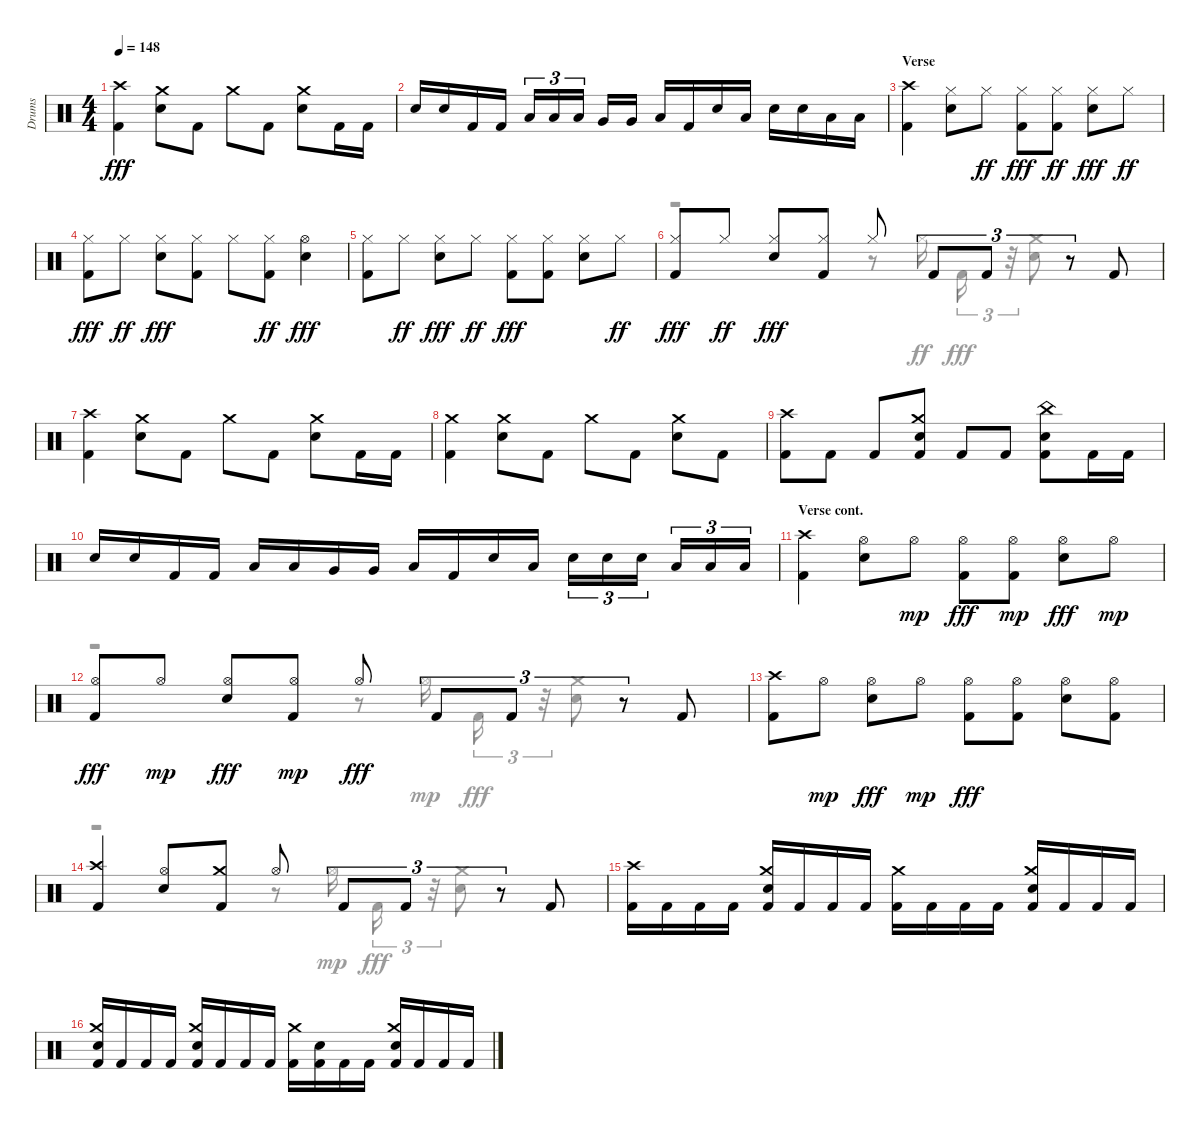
\track ("Drums" "Drums") {instrument percussion}
\staff {score}
\articulation defaults
\voice
\ts (4 4)
\tempo 148
\clef neutral
\ks aminor
("Crash high (hit)" "Kick (hit) 2").4{dy fff} ("Crash medium (hit)" "Snare (hit) 2").8 "Kick (hit) 2".8 "Crash medium (hit)".8 "Kick (hit) 2".8 ("Snare (hit) 2" "Crash medium (hit)").8 "Kick (hit) 2".16 "Kick (hit) 2".16 |
"Snare (hit) 2".16 "Snare (hit) 2".16 "Kick (hit) 2".16 "Kick (hit) 2".16 "Low Tom (hit)".16{tu (3 2)} "Low Tom (hit)".16{tu (3 2)} "Low Tom (hit)".16{tu (3 2)} "Very Low Tom (hit)".16 "Very Low Tom (hit)".16 "Low Floor Tom (hit)".16 "Kick (hit) 2".16 "Snare (hit) 2".16 "Low Floor Tom (hit)".16 "Snare (hit) 2".16 "Snare (hit) 2".16 "Low Floor Tom (hit)".16 "Low Floor Tom (hit)".16 |
\section ("" "Verse")
("Kick (hit) 2" "Crash high (hit)").4 ("Snare (hit) 2" "Hi-Hat (closed)").8 "Hi-Hat (closed)".8{dy ff} ("Hi-Hat (closed)" "Kick (hit) 2").8{dy fff} ("Kick (hit) 2" "Hi-Hat (closed)").8{dy ff} ("Hi-Hat (closed)" "Snare (hit) 2").8{dy fff} "Hi-Hat (closed)".8{dy ff} |
("Kick (hit) 2" "Hi-Hat (closed)").8{dy fff} "Hi-Hat (closed)".8{dy ff} ("Snare (hit) 2" "Hi-Hat (closed)").8{dy fff} ("Kick (hit) 2" "Hi-Hat (closed)").8 "Hi-Hat (closed)".8 ("Hi-Hat (closed)" "Kick (hit) 2").8{dy ff} ("Hi-Hat (open)" "Snare (hit) 2").4{dy fff} |
("Kick (hit) 2" "Hi-Hat (closed)").8 "Hi-Hat (closed)".8{dy ff} ("Snare (hit) 2" "Hi-Hat (closed)").8{dy fff} "Hi-Hat (closed)".8{dy ff} ("Kick (hit) 2" "Hi-Hat (closed)").8{dy fff} ("Kick (hit) 2" "Hi-Hat (closed)").8 ("Hi-Hat (closed)" "Snare (hit) 2").8 "Hi-Hat (closed)".8{dy ff} |
("Kick (hit) 2" "Hi-Hat (closed)").8{dy fff} "Hi-Hat (closed)".8{dy ff} ("Snare (hit) 2" "Hi-Hat (closed)").8{dy fff} ("Kick (hit) 2" "Hi-Hat (closed)").8 "Hi-Hat (closed)".8 "Kick (hit) 2".8{tu (3 2)} "Kick (hit) 2".8{tu (3 2)} r.8{tu (3 2)} "Kick (hit) 2".8 |
("Kick (hit) 2" "Crash high (hit)").4 ("Crash medium (hit)" "Snare (hit) 2").8 "Kick (hit) 2".8 "Crash medium (hit)".8 "Kick (hit) 2".8 ("Crash medium (hit)" "Snare (hit) 2").8 "Kick (hit) 2".16 "Kick (hit) 2".16 |
("Kick (hit) 2" "Crash medium (hit)").4 ("Crash medium (hit)" "Snare (hit) 2").8 "Kick (hit) 2".8 "Crash medium (hit)".8 "Kick (hit) 2".8 ("Crash medium (hit)" "Snare (hit) 2").8 "Kick (hit) 2".8 |
("Kick (hit) 2" "Crash high (hit)").8 "Kick (hit) 2".8 "Kick (hit) 2".8 ("Snare (hit) 2" "Crash medium (hit)" "Kick (hit) 2").8 "Kick (hit) 2".8 "Kick (hit) 2".8 ("China (hit)" "Kick (hit) 2" "Snare (hit) 2").8 "Kick (hit) 2".16 "Kick (hit) 2".16 |
"Snare (hit) 2".16 "Snare (hit) 2".16 "Kick (hit) 2".16 "Kick (hit) 2".16 "Low Tom (hit)".16 "Low Tom (hit)".16 "Very Low Tom (hit)".16 "Very Low Tom (hit)".16 "Low Floor Tom (hit)".16 "Kick (hit) 2".16 "Snare (hit) 2".16 "Low Floor Tom (hit)".16 "Snare (hit) 2".16{tu (3 2)} "Snare (hit) 2".16{tu (3 2)} "Snare (hit) 2".16{tu (3 2)} "Low Floor Tom (hit)".16{tu (3 2)} "Low Floor Tom (hit)".16{tu (3 2)} "Low Floor Tom (hit)".16{tu (3 2)} |
\section ("" "Verse cont.")
("Kick (hit) 2" "Crash high (hit)").4 ("Snare (hit) 2" "Hi-Hat (open)").8 "Hi-Hat (open)".8{dy mp} ("Kick (hit) 2" "Hi-Hat (open)").8{dy fff} ("Hi-Hat (open)" "Kick (hit) 2").8{dy mp} ("Hi-Hat (open)" "Snare (hit) 2").8{dy fff} "Hi-Hat (open)".8{dy mp} |
("Hi-Hat (open)" "Kick (hit) 2").8{dy fff} "Hi-Hat (open)".8{dy mp} ("Hi-Hat (open)" "Snare (hit) 2").8{dy fff} ("Kick (hit) 2" "Hi-Hat (open)").8{dy mp} "Hi-Hat (open)".8{dy fff} "Kick (hit) 2".8{tu (3 2)} "Kick (hit) 2".8{tu (3 2)} r.8{tu (3 2)} "Kick (hit) 2".8 |
("Crash high (hit)" "Kick (hit) 2").8 "Hi-Hat (open)".8{dy mp} ("Hi-Hat (open)" "Snare (hit) 2").8{dy fff} "Hi-Hat (open)".8{dy mp} ("Hi-Hat (open)" "Kick (hit) 2").8{dy fff} ("Kick (hit) 2" "Hi-Hat (open)").8 ("Snare (hit) 2" "Hi-Hat (open)").8 ("Kick (hit) 2" "Hi-Hat (open)").8 |
("Crash high (hit)" "Kick (hit) 2").4 ("Snare (hit) 2" "Hi-Hat (open)").8 ("Crash medium (hit)" "Kick (hit) 2").8 "Hi-Hat (open)".8 "Kick (hit) 2".8{tu (3 2)} "Kick (hit) 2".8{tu (3 2)} r.8{tu (3 2)} "Kick (hit) 2".8 |
("Crash high (hit)" "Kick (hit) 2").16 "Kick (hit) 2".16 "Kick (hit) 2".16 "Kick (hit) 2".16 ("Snare (hit) 2" "Crash medium (hit)" "Kick (hit) 2").16 "Kick (hit) 2".16 "Kick (hit) 2".16 "Kick (hit) 2".16 ("Kick (hit) 2" "Crash medium (hit)").16 "Kick (hit) 2".16 "Kick (hit) 2".16 "Kick (hit) 2".16 ("Snare (hit) 2" "Crash medium (hit)" "Kick (hit) 2").16 "Kick (hit) 2".16 "Kick (hit) 2".16 "Kick (hit) 2".16 |
("Kick (hit) 2" "Crash medium (hit)" "Snare (hit) 2").16 "Kick (hit) 2".16 "Kick (hit) 2".16 "Kick (hit) 2".16 ("Kick (hit) 2" "Snare (hit) 2" "Crash medium (hit)").16 "Kick (hit) 2".16 "Kick (hit) 2".16 "Kick (hit) 2".16 ("Kick (hit) 2" "Crash medium (hit)").16 ("Snare (hit) 2" "Kick (hit) 2").16 "Kick (hit) 2".16 "Kick (hit) 2".16 ("Crash medium (hit)" "Snare (hit) 2" "Kick (hit) 2").16 "Kick (hit) 2".16 "Kick (hit) 2".16 "Kick (hit) 2".16
\voice
\clef neutral
\ottava regular
\simile none
\ks aminor
|
|
|
|
|
r.2 r.8 "Hi-Hat (closed)".16{dy ff} "Kick (hit) 2".16{tu (3 2) dy fff} r.32{tu (3 2)} ("Snare (hit) 2" "Crash medium (hit)").8 |
|
|
|
|
|
r.2 r.8 "Hi-Hat (open)".16{dy mp} "Kick (hit) 2".16{tu (3 2) dy fff} r.32{tu (3 2)} ("Snare (hit) 2" "Crash medium (hit)").8 |
|
r.2 r.8 "Hi-Hat (open)".16{dy mp} "Kick (hit) 2".16{tu (3 2) dy fff} r.32{tu (3 2)} ("Crash medium (hit)" "Snare (hit) 2").8 |
|
